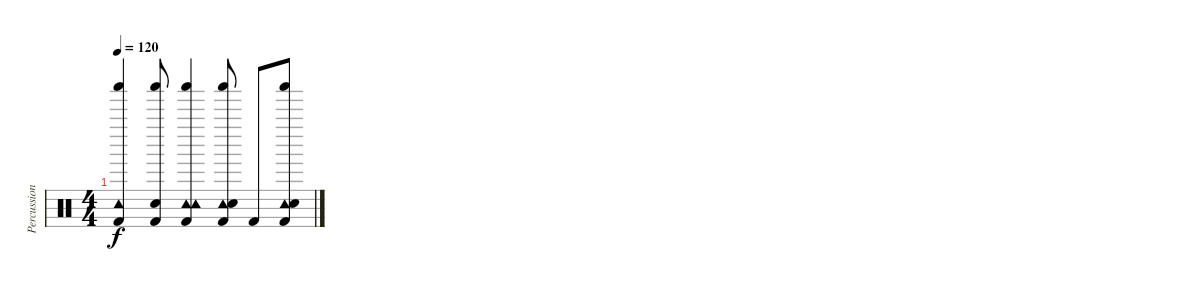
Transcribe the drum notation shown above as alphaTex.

\track ("Percussion" "Percussion") {instrument percussion}
\staff {score}
\articulation defaults
\ts (4 4)
\tempo 120
\clef neutral
\ks c
("Kick (hit) 2" "Shaker (hit)" "Tambourine (hit)").4{dy f} ("Kick (hit) 2" "Shaker (hit)" "Snare (hit)").8 ("Kick (hit) 2" "Shaker (hit)" "Tambourine (hit)" "Tambourine (hit)").4 ("Shaker (hit)" "Tambourine (hit)" "Snare (hit) 2" "Kick (hit) 2").8 "Kick (hit) 2".8 ("Shaker (hit)" "Tambourine (hit)" "Snare (hit) 2" "Kick (hit) 2").8
